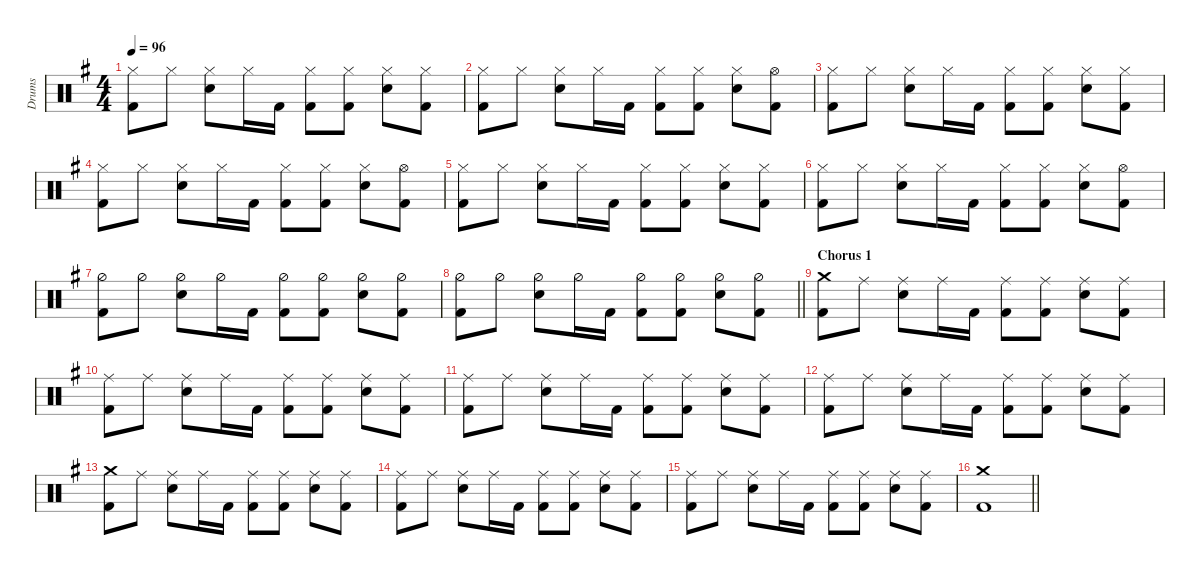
\defaultSystemsLayout 4
\hideDynamics
\bracketExtendMode nobrackets
\otherSystemsTrackNameOrientation horizontal
\track ("Drumkit" "Drums") {instrument percussion}
\staff {score}
\articulation defaults
\ts (4 4)
\tempo 96
\clef neutral
\ks g
("Hi-Hat (closed)"{acc forcenatural} "Kick (hit) 2"{acc forcenatural}).8{dy f beam Down} "Hi-Hat (closed)"{acc forcenatural}.8{beam Down} ("Hi-Hat (closed)"{acc forcenatural} "Snare (hit) 2"{acc forcenatural}).8{beam Down} "Hi-Hat (closed)"{acc forcenatural}.16{beam Down} "Kick (hit) 2"{acc forcenatural}.16{beam Down} ("Hi-Hat (closed)"{acc forcenatural} "Kick (hit) 2"{acc forcenatural}).8{beam Down} ("Hi-Hat (closed)"{acc forcenatural} "Kick (hit) 2"{acc forcenatural}).8{beam Down} ("Hi-Hat (closed)"{acc forcenatural} "Snare (hit) 2"{acc forcenatural}).8{beam Down} ("Hi-Hat (closed)"{acc forcenatural} "Kick (hit) 2"{acc forcenatural}).8{beam Down} |
("Hi-Hat (closed)"{acc forcenatural} "Kick (hit) 2"{acc forcenatural}).8{beam Down} "Hi-Hat (closed)"{acc forcenatural}.8{beam Down} ("Hi-Hat (closed)"{acc forcenatural} "Snare (hit) 2"{acc forcenatural}).8{beam Down} "Hi-Hat (closed)"{acc forcenatural}.16{beam Down} "Kick (hit) 2"{acc forcenatural}.16{beam Down} ("Hi-Hat (closed)"{acc forcenatural} "Kick (hit) 2"{acc forcenatural}).8{beam Down} ("Hi-Hat (closed)"{acc forcenatural} "Kick (hit) 2"{acc forcenatural}).8{beam Down} ("Hi-Hat (closed)"{acc forcenatural} "Snare (hit) 2"{acc forcenatural}).8{beam Down} ("Hi-Hat (open)"{acc forcenatural} "Kick (hit) 2"{acc forcenatural}).8{beam Down} |
("Hi-Hat (closed)"{acc forcenatural} "Kick (hit) 2"{acc forcenatural}).8{beam Down} "Hi-Hat (closed)"{acc forcenatural}.8{beam Down} ("Hi-Hat (closed)"{acc forcenatural} "Snare (hit) 2"{acc forcenatural}).8{beam Down} "Hi-Hat (closed)"{acc forcenatural}.16{beam Down} "Kick (hit) 2"{acc forcenatural}.16{beam Down} ("Hi-Hat (closed)"{acc forcenatural} "Kick (hit) 2"{acc forcenatural}).8{beam Down} ("Hi-Hat (closed)"{acc forcenatural} "Kick (hit) 2"{acc forcenatural}).8{beam Down} ("Hi-Hat (closed)"{acc forcenatural} "Snare (hit) 2"{acc forcenatural}).8{beam Down} ("Hi-Hat (closed)"{acc forcenatural} "Kick (hit) 2"{acc forcenatural}).8{beam Down} |
("Hi-Hat (closed)"{acc forcenatural} "Kick (hit) 2"{acc forcenatural}).8{beam Down} "Hi-Hat (closed)"{acc forcenatural}.8{beam Down} ("Hi-Hat (closed)"{acc forcenatural} "Snare (hit) 2"{acc forcenatural}).8{beam Down} "Hi-Hat (closed)"{acc forcenatural}.16{beam Down} "Kick (hit) 2"{acc forcenatural}.16{beam Down} ("Hi-Hat (closed)"{acc forcenatural} "Kick (hit) 2"{acc forcenatural}).8{beam Down} ("Hi-Hat (closed)"{acc forcenatural} "Kick (hit) 2"{acc forcenatural}).8{beam Down} ("Hi-Hat (closed)"{acc forcenatural} "Snare (hit) 2"{acc forcenatural}).8{beam Down} ("Hi-Hat (open)"{acc forcenatural} "Kick (hit) 2"{acc forcenatural}).8{beam Down} |
("Hi-Hat (closed)"{acc forcenatural} "Kick (hit) 2"{acc forcenatural}).8{beam Down} "Hi-Hat (closed)"{acc forcenatural}.8{beam Down} ("Hi-Hat (closed)"{acc forcenatural} "Snare (hit) 2"{acc forcenatural}).8{beam Down} "Hi-Hat (closed)"{acc forcenatural}.16{beam Down} "Kick (hit) 2"{acc forcenatural}.16{beam Down} ("Hi-Hat (closed)"{acc forcenatural} "Kick (hit) 2"{acc forcenatural}).8{beam Down} ("Hi-Hat (closed)"{acc forcenatural} "Kick (hit) 2"{acc forcenatural}).8{beam Down} ("Hi-Hat (closed)"{acc forcenatural} "Snare (hit) 2"{acc forcenatural}).8{beam Down} ("Hi-Hat (closed)"{acc forcenatural} "Kick (hit) 2"{acc forcenatural}).8{beam Down} |
("Hi-Hat (closed)"{acc forcenatural} "Kick (hit) 2"{acc forcenatural}).8{beam Down} "Hi-Hat (closed)"{acc forcenatural}.8{beam Down} ("Hi-Hat (closed)"{acc forcenatural} "Snare (hit) 2"{acc forcenatural}).8{beam Down} "Hi-Hat (closed)"{acc forcenatural}.16{beam Down} "Kick (hit) 2"{acc forcenatural}.16{beam Down} ("Hi-Hat (closed)"{acc forcenatural} "Kick (hit) 2"{acc forcenatural}).8{beam Down} ("Hi-Hat (closed)"{acc forcenatural} "Kick (hit) 2"{acc forcenatural}).8{beam Down} ("Hi-Hat (closed)"{acc forcenatural} "Snare (hit) 2"{acc forcenatural}).8{beam Down} ("Hi-Hat (open)"{acc forcenatural} "Kick (hit) 2"{acc forcenatural}).8{beam Down} |
("Hi-Hat (half)"{acc forcenatural} "Kick (hit) 2"{acc forcenatural}).8{beam Down} "Hi-Hat (half)"{acc forcenatural}.8{dy mf beam Down} ("Hi-Hat (half)"{acc forcenatural} "Snare (hit) 2"{acc forcenatural}).8{dy f beam Down} "Hi-Hat (half)"{acc forcenatural}.16{dy mf beam Down} "Kick (hit) 2"{acc forcenatural}.16{dy f beam Down} ("Hi-Hat (half)"{acc forcenatural} "Kick (hit) 2"{acc forcenatural}).8{beam Down} ("Hi-Hat (half)"{acc forcenatural} "Kick (hit) 2"{acc forcenatural}).8{beam Down} ("Hi-Hat (half)"{acc forcenatural} "Snare (hit) 2"{acc forcenatural}).8{beam Down} ("Hi-Hat (half)"{acc forcenatural} "Kick (hit) 2"{acc forcenatural}).8{beam Down} |
\barLineRight lightlight
("Hi-Hat (half)"{acc forcenatural} "Kick (hit) 2"{acc forcenatural}).8{beam Down} "Hi-Hat (half)"{acc forcenatural}.8{dy mf beam Down} ("Hi-Hat (half)"{acc forcenatural} "Snare (hit) 2"{acc forcenatural}).8{dy f beam Down} "Hi-Hat (half)"{acc forcenatural}.16{dy mf beam Down} "Kick (hit) 2"{acc forcenatural}.16{dy f beam Down} ("Hi-Hat (half)"{acc forcenatural} "Kick (hit) 2"{acc forcenatural}).8{beam Down} ("Hi-Hat (half)"{acc forcenatural} "Kick (hit) 2"{acc forcenatural}).8{beam Down} ("Hi-Hat (half)"{acc forcenatural} "Snare (hit) 2"{acc forcenatural}).8{beam Down} ("Hi-Hat (half)"{acc forcenatural} "Kick (hit) 2"{acc forcenatural}).8{beam Down} |
\section ("" "Chorus 1")
("Crash medium (hit)"{acc forcenatural} "Kick (hit) 2"{acc forcenatural}).8{beam Down} "Ride (middle)"{acc forcenatural}.8{beam Down} ("Snare (hit) 2"{acc forcenatural} "Ride (middle)"{acc forcenatural}).8{beam Down} "Ride (middle)"{acc forcenatural}.16{beam Down} "Kick (hit) 2"{acc forcenatural}.16{beam Down} ("Kick (hit) 2"{acc forcenatural} "Ride (middle)"{acc forcenatural}).8{beam Down} ("Kick (hit) 2"{acc forcenatural} "Ride (middle)"{acc forcenatural}).8{beam Down} ("Snare (hit) 2"{acc forcenatural} "Ride (middle)"{acc forcenatural}).8{beam Down} ("Kick (hit) 2"{acc forcenatural} "Ride (middle)"{acc forcenatural}).8{beam Down} |
("Kick (hit) 2"{acc forcenatural} "Ride (middle)"{acc forcenatural}).8{beam Down} "Ride (middle)"{acc forcenatural}.8{beam Down} ("Snare (hit) 2"{acc forcenatural} "Ride (middle)"{acc forcenatural}).8{beam Down} "Ride (middle)"{acc forcenatural}.16{beam Down} "Kick (hit) 2"{acc forcenatural}.16{beam Down} ("Kick (hit) 2"{acc forcenatural} "Ride (middle)"{acc forcenatural}).8{beam Down} ("Kick (hit) 2"{acc forcenatural} "Ride (middle)"{acc forcenatural}).8{beam Down} ("Snare (hit) 2"{acc forcenatural} "Ride (middle)"{acc forcenatural}).8{beam Down} ("Kick (hit) 2"{acc forcenatural} "Ride (middle)"{acc forcenatural}).8{beam Down} |
("Kick (hit) 2"{acc forcenatural} "Ride (middle)"{acc forcenatural}).8{beam Down} "Ride (middle)"{acc forcenatural}.8{beam Down} ("Snare (hit) 2"{acc forcenatural} "Ride (middle)"{acc forcenatural}).8{beam Down} "Ride (middle)"{acc forcenatural}.16{beam Down} "Kick (hit) 2"{acc forcenatural}.16{beam Down} ("Kick (hit) 2"{acc forcenatural} "Ride (middle)"{acc forcenatural}).8{beam Down} ("Kick (hit) 2"{acc forcenatural} "Ride (middle)"{acc forcenatural}).8{beam Down} ("Snare (hit) 2"{acc forcenatural} "Ride (middle)"{acc forcenatural}).8{beam Down} ("Kick (hit) 2"{acc forcenatural} "Ride (middle)"{acc forcenatural}).8{beam Down} |
("Kick (hit) 2"{acc forcenatural} "Ride (middle)"{acc forcenatural}).8{beam Down} "Ride (middle)"{acc forcenatural}.8{beam Down} ("Snare (hit) 2"{acc forcenatural} "Ride (middle)"{acc forcenatural}).8{beam Down} "Ride (middle)"{acc forcenatural}.16{beam Down} "Kick (hit) 2"{acc forcenatural}.16{beam Down} ("Kick (hit) 2"{acc forcenatural} "Ride (middle)"{acc forcenatural}).8{beam Down} ("Kick (hit) 2"{acc forcenatural} "Ride (middle)"{acc forcenatural}).8{beam Down} ("Snare (hit) 2"{acc forcenatural} "Ride (middle)"{acc forcenatural}).8{beam Down} ("Kick (hit) 2"{acc forcenatural} "Ride (middle)"{acc forcenatural}).8{beam Down} |
("Kick (hit) 2"{acc forcenatural} "Crash medium (hit)"{acc forcenatural}).8{beam Down} "Ride (middle)"{acc forcenatural}.8{beam Down} ("Snare (hit) 2"{acc forcenatural} "Ride (middle)"{acc forcenatural}).8{beam Down} "Ride (middle)"{acc forcenatural}.16{beam Down} "Kick (hit) 2"{acc forcenatural}.16{beam Down} ("Kick (hit) 2"{acc forcenatural} "Ride (middle)"{acc forcenatural}).8{beam Down} ("Kick (hit) 2"{acc forcenatural} "Ride (middle)"{acc forcenatural}).8{beam Down} ("Snare (hit) 2"{acc forcenatural} "Ride (middle)"{acc forcenatural}).8{beam Down} ("Kick (hit) 2"{acc forcenatural} "Ride (middle)"{acc forcenatural}).8{beam Down} |
("Kick (hit) 2"{acc forcenatural} "Ride (middle)"{acc forcenatural}).8{beam Down} "Ride (middle)"{acc forcenatural}.8{beam Down} ("Snare (hit) 2"{acc forcenatural} "Ride (middle)"{acc forcenatural}).8{beam Down} "Ride (middle)"{acc forcenatural}.16{beam Down} "Kick (hit) 2"{acc forcenatural}.16{beam Down} ("Kick (hit) 2"{acc forcenatural} "Ride (middle)"{acc forcenatural}).8{beam Down} ("Kick (hit) 2"{acc forcenatural} "Ride (middle)"{acc forcenatural}).8{beam Down} ("Snare (hit) 2"{acc forcenatural} "Ride (middle)"{acc forcenatural}).8{beam Down} ("Kick (hit) 2"{acc forcenatural} "Ride (middle)"{acc forcenatural}).8{beam Down} |
("Kick (hit) 2"{acc forcenatural} "Ride (middle)"{acc forcenatural}).8{beam Down} "Ride (middle)"{acc forcenatural}.8{beam Down} ("Snare (hit) 2"{acc forcenatural} "Ride (middle)"{acc forcenatural}).8{beam Down} "Ride (middle)"{acc forcenatural}.16{beam Down} "Kick (hit) 2"{acc forcenatural}.16{beam Down} ("Kick (hit) 2"{acc forcenatural} "Ride (middle)"{acc forcenatural}).8{beam Down} ("Kick (hit) 2"{acc forcenatural} "Ride (middle)"{acc forcenatural}).8{beam Down} ("Snare (hit) 2"{acc forcenatural} "Ride (middle)"{acc forcenatural}).8{beam Down} ("Kick (hit) 2"{acc forcenatural} "Ride (middle)"{acc forcenatural}).8{beam Down} |
\barLineRight lightlight
("Crash medium (hit)"{acc forcenatural} "Kick (hit) 2"{acc forcenatural}).1{beam Down}
